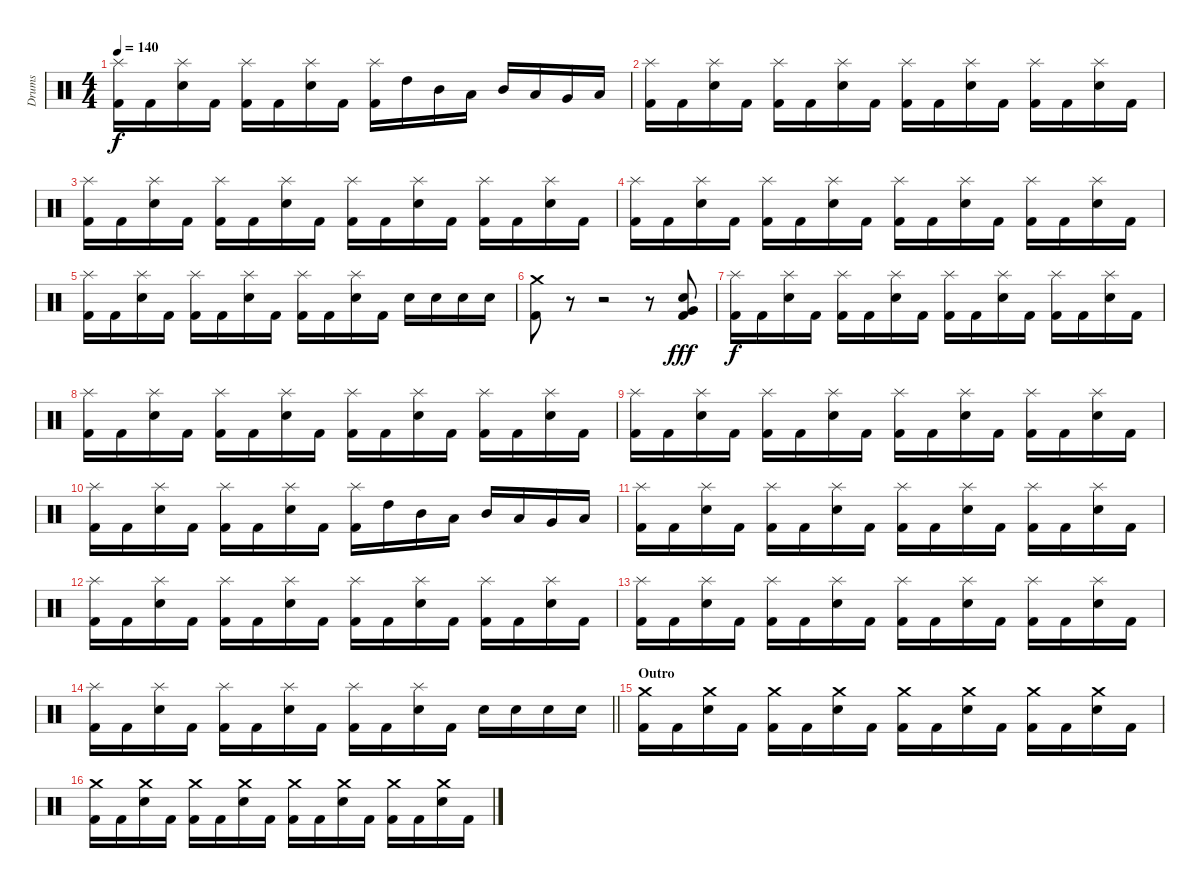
\track ("Drums" "Drums") {instrument percussion}
\staff {score}
\articulation defaults
\ts (4 4)
\tempo 140
\clef neutral
\ks c
("Splash (hit)" "Kick (hit) 2").16{dy f} "Kick (hit) 2".16 ("Splash (hit)" "Electric Snare (hit)").16 "Kick (hit) 2".16 ("Splash (hit)" "Kick (hit) 2").16 "Kick (hit) 2".16 ("Splash (hit)" "Electric Snare (hit)").16 "Kick (hit) 2".16 ("Splash (hit)" "Kick (hit) 2").16 "High Tom (hit)".16 "Mid Tom (hit)".16 "Low Tom (hit)".16 "Mid Tom (hit)".16 "Low Tom (hit)".16 "Very Low Tom (hit)".16 "Low Tom (hit)".16 |
("Splash (hit)" "Kick (hit) 2").16 "Kick (hit) 2".16 ("Splash (hit)" "Electric Snare (hit)").16 "Kick (hit) 2".16 ("Splash (hit)" "Kick (hit) 2").16 "Kick (hit) 2".16 ("Splash (hit)" "Electric Snare (hit)").16 "Kick (hit) 2".16 ("Splash (hit)" "Kick (hit) 2").16 "Kick (hit) 2".16 ("Splash (hit)" "Electric Snare (hit)").16 "Kick (hit) 2".16 ("Splash (hit)" "Kick (hit) 2").16 "Kick (hit) 2".16 ("Splash (hit)" "Electric Snare (hit)").16 "Kick (hit) 2".16 |
("Splash (hit)" "Kick (hit) 2").16 "Kick (hit) 2".16 ("Splash (hit)" "Electric Snare (hit)").16 "Kick (hit) 2".16 ("Splash (hit)" "Kick (hit) 2").16 "Kick (hit) 2".16 ("Splash (hit)" "Electric Snare (hit)").16 "Kick (hit) 2".16 ("Splash (hit)" "Kick (hit) 2").16 "Kick (hit) 2".16 ("Splash (hit)" "Electric Snare (hit)").16 "Kick (hit) 2".16 ("Splash (hit)" "Kick (hit) 2").16 "Kick (hit) 2".16 ("Splash (hit)" "Electric Snare (hit)").16 "Kick (hit) 2".16 |
("Splash (hit)" "Kick (hit) 2").16 "Kick (hit) 2".16 ("Splash (hit)" "Electric Snare (hit)").16 "Kick (hit) 2".16 ("Splash (hit)" "Kick (hit) 2").16 "Kick (hit) 2".16 ("Splash (hit)" "Electric Snare (hit)").16 "Kick (hit) 2".16 ("Splash (hit)" "Kick (hit) 2").16 "Kick (hit) 2".16 ("Splash (hit)" "Electric Snare (hit)").16 "Kick (hit) 2".16 ("Splash (hit)" "Kick (hit) 2").16 "Kick (hit) 2".16 ("Splash (hit)" "Electric Snare (hit)").16 "Kick (hit) 2".16 |
("Splash (hit)" "Kick (hit) 2").16 "Kick (hit) 2".16 ("Splash (hit)" "Electric Snare (hit)").16 "Kick (hit) 2".16 ("Splash (hit)" "Kick (hit) 2").16 "Kick (hit) 2".16 ("Splash (hit)" "Electric Snare (hit)").16 "Kick (hit) 2".16 ("Splash (hit)" "Kick (hit) 2").16 "Kick (hit) 2".16 ("Splash (hit)" "Electric Snare (hit)").16 "Kick (hit) 2".16 "Electric Snare (hit)".16 "Electric Snare (hit)".16 "Electric Snare (hit)".16 "Electric Snare (hit)".16 |
("Crash medium (hit)" "Kick (hit) 2").8 r.8 r.2 r.8 ("Very Low Tom (hit)" "Electric Snare (hit)" "Kick (hit) 2").8{dy fff} |
("Splash (hit)" "Kick (hit) 2").16{dy f} "Kick (hit) 2".16 ("Splash (hit)" "Electric Snare (hit)").16 "Kick (hit) 2".16 ("Splash (hit)" "Kick (hit) 2").16 "Kick (hit) 2".16 ("Splash (hit)" "Electric Snare (hit)").16 "Kick (hit) 2".16 ("Splash (hit)" "Kick (hit) 2").16 "Kick (hit) 2".16 ("Splash (hit)" "Electric Snare (hit)").16 "Kick (hit) 2".16 ("Splash (hit)" "Kick (hit) 2").16 "Kick (hit) 2".16 ("Splash (hit)" "Electric Snare (hit)").16 "Kick (hit) 2".16 |
("Splash (hit)" "Kick (hit) 2").16 "Kick (hit) 2".16 ("Splash (hit)" "Electric Snare (hit)").16 "Kick (hit) 2".16 ("Splash (hit)" "Kick (hit) 2").16 "Kick (hit) 2".16 ("Splash (hit)" "Electric Snare (hit)").16 "Kick (hit) 2".16 ("Splash (hit)" "Kick (hit) 2").16 "Kick (hit) 2".16 ("Splash (hit)" "Electric Snare (hit)").16 "Kick (hit) 2".16 ("Splash (hit)" "Kick (hit) 2").16 "Kick (hit) 2".16 ("Splash (hit)" "Electric Snare (hit)").16 "Kick (hit) 2".16 |
("Splash (hit)" "Kick (hit) 2").16 "Kick (hit) 2".16 ("Splash (hit)" "Electric Snare (hit)").16 "Kick (hit) 2".16 ("Splash (hit)" "Kick (hit) 2").16 "Kick (hit) 2".16 ("Splash (hit)" "Electric Snare (hit)").16 "Kick (hit) 2".16 ("Splash (hit)" "Kick (hit) 2").16 "Kick (hit) 2".16 ("Splash (hit)" "Electric Snare (hit)").16 "Kick (hit) 2".16 ("Splash (hit)" "Kick (hit) 2").16 "Kick (hit) 2".16 ("Splash (hit)" "Electric Snare (hit)").16 "Kick (hit) 2".16 |
("Splash (hit)" "Kick (hit) 2").16 "Kick (hit) 2".16 ("Splash (hit)" "Electric Snare (hit)").16 "Kick (hit) 2".16 ("Splash (hit)" "Kick (hit) 2").16 "Kick (hit) 2".16 ("Splash (hit)" "Electric Snare (hit)").16 "Kick (hit) 2".16 ("Splash (hit)" "Kick (hit) 2").16 "High Tom (hit)".16 "Mid Tom (hit)".16 "Low Tom (hit)".16 "Mid Tom (hit)".16 "Low Tom (hit)".16 "Very Low Tom (hit)".16 "Low Tom (hit)".16 |
("Splash (hit)" "Kick (hit) 2").16 "Kick (hit) 2".16 ("Splash (hit)" "Electric Snare (hit)").16 "Kick (hit) 2".16 ("Splash (hit)" "Kick (hit) 2").16 "Kick (hit) 2".16 ("Splash (hit)" "Electric Snare (hit)").16 "Kick (hit) 2".16 ("Splash (hit)" "Kick (hit) 2").16 "Kick (hit) 2".16 ("Splash (hit)" "Electric Snare (hit)").16 "Kick (hit) 2".16 ("Splash (hit)" "Kick (hit) 2").16 "Kick (hit) 2".16 ("Splash (hit)" "Electric Snare (hit)").16 "Kick (hit) 2".16 |
("Splash (hit)" "Kick (hit) 2").16 "Kick (hit) 2".16 ("Splash (hit)" "Electric Snare (hit)").16 "Kick (hit) 2".16 ("Splash (hit)" "Kick (hit) 2").16 "Kick (hit) 2".16 ("Splash (hit)" "Electric Snare (hit)").16 "Kick (hit) 2".16 ("Splash (hit)" "Kick (hit) 2").16 "Kick (hit) 2".16 ("Splash (hit)" "Electric Snare (hit)").16 "Kick (hit) 2".16 ("Splash (hit)" "Kick (hit) 2").16 "Kick (hit) 2".16 ("Splash (hit)" "Electric Snare (hit)").16 "Kick (hit) 2".16 |
("Splash (hit)" "Kick (hit) 2").16 "Kick (hit) 2".16 ("Splash (hit)" "Electric Snare (hit)").16 "Kick (hit) 2".16 ("Splash (hit)" "Kick (hit) 2").16 "Kick (hit) 2".16 ("Splash (hit)" "Electric Snare (hit)").16 "Kick (hit) 2".16 ("Splash (hit)" "Kick (hit) 2").16 "Kick (hit) 2".16 ("Splash (hit)" "Electric Snare (hit)").16 "Kick (hit) 2".16 ("Splash (hit)" "Kick (hit) 2").16 "Kick (hit) 2".16 ("Splash (hit)" "Electric Snare (hit)").16 "Kick (hit) 2".16 |
\barLineRight lightlight
("Splash (hit)" "Kick (hit) 2").16 "Kick (hit) 2".16 ("Splash (hit)" "Electric Snare (hit)").16 "Kick (hit) 2".16 ("Splash (hit)" "Kick (hit) 2").16 "Kick (hit) 2".16 ("Splash (hit)" "Electric Snare (hit)").16 "Kick (hit) 2".16 ("Splash (hit)" "Kick (hit) 2").16 "Kick (hit) 2".16 ("Splash (hit)" "Electric Snare (hit)").16 "Kick (hit) 2".16 "Electric Snare (hit)".16 "Electric Snare (hit)".16 "Electric Snare (hit)".16 "Electric Snare (hit)".16 |
\section ("" "Outro")
("Crash medium (hit)" "Kick (hit) 2").16 "Kick (hit) 2".16 ("Crash medium (hit)" "Electric Snare (hit)").16 "Kick (hit) 2".16 ("Crash medium (hit)" "Kick (hit) 2").16 "Kick (hit) 2".16 ("Crash medium (hit)" "Electric Snare (hit)").16 "Kick (hit) 2".16 ("Crash medium (hit)" "Kick (hit) 2").16 "Kick (hit) 2".16 ("Crash medium (hit)" "Electric Snare (hit)").16 "Kick (hit) 2".16 ("Crash medium (hit)" "Kick (hit) 2").16 "Kick (hit) 2".16 ("Crash medium (hit)" "Electric Snare (hit)").16 "Kick (hit) 2".16 |
("Crash medium (hit)" "Kick (hit) 2").16 "Kick (hit) 2".16 ("Crash medium (hit)" "Electric Snare (hit)").16 "Kick (hit) 2".16 ("Crash medium (hit)" "Kick (hit) 2").16 "Kick (hit) 2".16 ("Crash medium (hit)" "Electric Snare (hit)").16 "Kick (hit) 2".16 ("Crash medium (hit)" "Kick (hit) 2").16 "Kick (hit) 2".16 ("Crash medium (hit)" "Electric Snare (hit)").16 "Kick (hit) 2".16 ("Crash medium (hit)" "Kick (hit) 2").16 "Kick (hit) 2".16 ("Crash medium (hit)" "Electric Snare (hit)").16 "Kick (hit) 2".16
